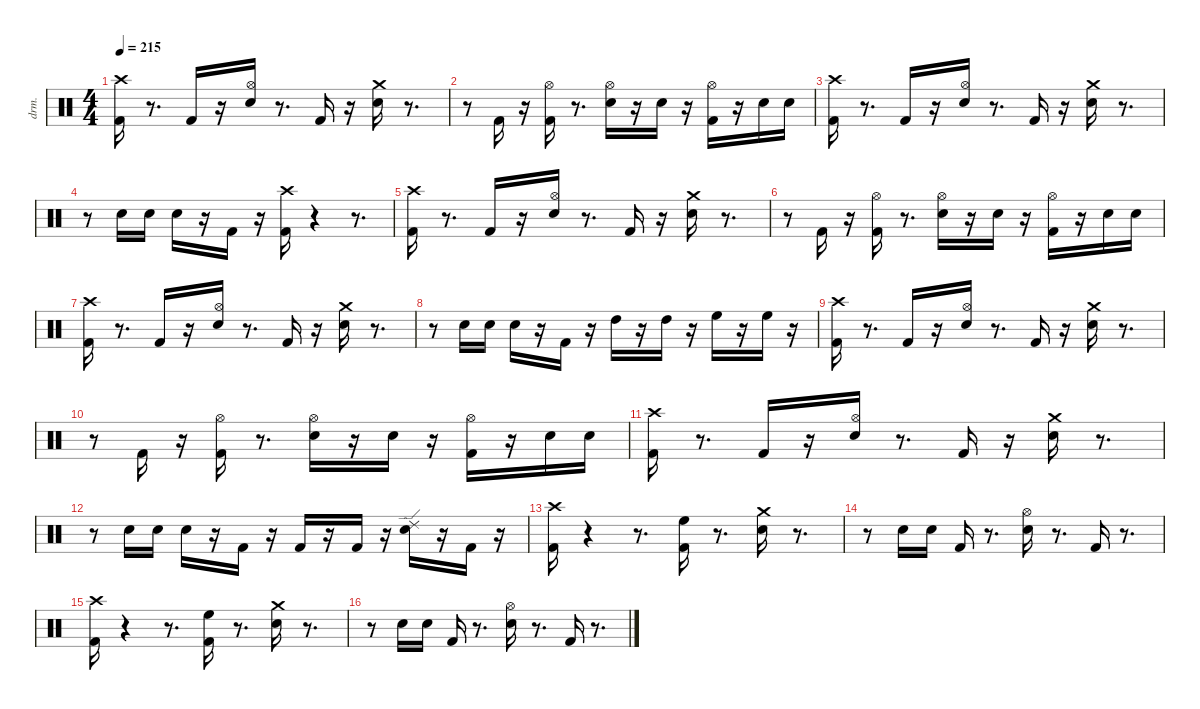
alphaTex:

\defaultSystemsLayout 4
\hideDynamics
\bracketExtendMode nobrackets
\otherSystemsTrackNameOrientation horizontal
\track ("drums(暫定)" "drm.") {instrument percussion}
\staff {score}
\articulation defaults
\ts (4 4)
\tempo 215
\clef neutral
\ks aminor
("Kick (hit) 2" "Crash high (hit)"{acc #}).16{dy fff beam Down} r.8{d beam Down} "Kick (hit) 2".16{dy f beam Up} r.16{beam Up} ("Snare (hit) 2" "Hi-Hat (open)"{acc #}).16{dy ff beam Down} r.8{d beam Down} "Kick (hit) 2".16{beam Up} r.16{beam Up} ("Snare (hit) 2" "Crash medium (hit)").16{beam Down} r.8{d beam Down} |
r.8{beam Down} "Kick (hit) 2".16{dy mf beam Up} r.16{beam Up} ("Kick (hit) 2" "Hi-Hat (open)"{acc #}).16{dy fff beam Down} r.8{d beam Down} ("Snare (hit) 2" "Hi-Hat (open)"{acc #}).16{beam Down} r.16{beam Down} "Snare (hit) 2".16{dy p beam Down} r.16{beam Down} ("Kick (hit) 2" "Hi-Hat (open)"{acc #}).16{dy ff beam Down} r.16{beam Down} "Snare (hit) 2".16{dy mp beam Down} "Snare (hit) 2".16{dy ppp beam Down} |
("Kick (hit) 2" "Crash high (hit)"{acc #}).16{dy fff beam Down} r.8{d beam Down} "Kick (hit) 2".16{dy f beam Up} r.16{beam Up} ("Snare (hit) 2" "Hi-Hat (open)"{acc #}).16{dy ff beam Down} r.8{d beam Down} "Kick (hit) 2".16{beam Up} r.16{beam Up} ("Snare (hit) 2" "Crash medium (hit)").16{beam Down} r.8{d beam Down} |
r.8{beam Down} "Snare (hit) 2".16{dy mf beam Down} "Snare (hit) 2".16{dy p beam Down} "Snare (hit) 2".16{dy ff beam Down} r.16{beam Down} "Kick (hit) 2".16{dy mf beam Up} r.16{beam Up} ("Kick (hit) 2" "Crash high (hit)"{acc #}).16{dy fff beam Down} r.4{beam Down} r.8{d beam Down} |
("Kick (hit) 2" "Crash high (hit)"{acc #}).16{beam Down} r.8{d beam Down} "Kick (hit) 2".16{dy f beam Up} r.16{beam Up} ("Snare (hit) 2" "Hi-Hat (open)"{acc #}).16{dy ff beam Down} r.8{d beam Down} "Kick (hit) 2".16{beam Up} r.16{beam Up} ("Snare (hit) 2" "Crash medium (hit)").16{beam Down} r.8{d beam Down} |
r.8{beam Down} "Kick (hit) 2".16{dy mf beam Up} r.16{beam Up} ("Kick (hit) 2" "Hi-Hat (open)"{acc #}).16{dy fff beam Down} r.8{d beam Down} ("Snare (hit) 2" "Hi-Hat (open)"{acc #}).16{beam Down} r.16{beam Down} "Snare (hit) 2".16{dy p beam Down} r.16{beam Down} ("Kick (hit) 2" "Hi-Hat (open)"{acc #}).16{dy ff beam Down} r.16{beam Down} "Snare (hit) 2".16{dy mp beam Down} "Snare (hit) 2".16{dy ppp beam Down} |
("Kick (hit) 2" "Crash high (hit)"{acc #}).16{dy fff beam Down} r.8{d beam Down} "Kick (hit) 2".16{dy f beam Up} r.16{beam Up} ("Snare (hit) 2" "Hi-Hat (open)"{acc #}).16{dy ff beam Down} r.8{d beam Down} "Kick (hit) 2".16{beam Up} r.16{beam Up} ("Snare (hit) 2" "Crash medium (hit)").16{beam Down} r.8{d beam Down} |
r.8{beam Down} "Snare (hit) 2".16{dy mf beam Down} "Snare (hit) 2".16{dy p beam Down} "Snare (hit) 2".16{dy ff beam Down} r.16{beam Down} "Kick (hit) 2".16{beam Up} r.16{beam Up} "High Tom (hit)".16{beam Down} r.16{beam Down} "High Tom (hit)".16{dy f beam Down} r.16{beam Down} "High Floor Tom (hit)".16{dy ff beam Down} r.16{beam Down} "High Floor Tom (hit)".16{dy f beam Down} r.16{beam Down} |
("Kick (hit) 2" "Crash high (hit)"{acc #}).16{dy fff beam Down} r.8{d beam Down} "Kick (hit) 2".16{dy f beam Up} r.16{beam Up} ("Snare (hit) 2" "Hi-Hat (open)"{acc #}).16{dy ff beam Down} r.8{d beam Down} "Kick (hit) 2".16{beam Up} r.16{beam Up} ("Snare (hit) 2" "Crash medium (hit)").16{beam Down} r.8{d beam Down} |
r.8{beam Down} "Kick (hit) 2".16{dy mf beam Up} r.16{beam Up} ("Kick (hit) 2" "Hi-Hat (open)"{acc #}).16{dy fff beam Down} r.8{d beam Down} ("Snare (hit) 2" "Hi-Hat (open)"{acc #}).16{beam Down} r.16{beam Down} "Snare (hit) 2".16{dy p beam Down} r.16{beam Down} ("Kick (hit) 2" "Hi-Hat (open)"{acc #}).16{dy ff beam Down} r.16{beam Down} "Snare (hit) 2".16{dy mp beam Down} "Snare (hit) 2".16{dy ppp beam Down} |
("Kick (hit) 2" "Crash high (hit)"{acc #}).16{dy fff beam Down} r.8{d beam Down} "Kick (hit) 2".16{dy f beam Up} r.16{beam Up} ("Snare (hit) 2" "Hi-Hat (open)"{acc #}).16{dy ff beam Down} r.8{d beam Down} "Kick (hit) 2".16{beam Up} r.16{beam Up} ("Snare (hit) 2" "Crash medium (hit)").16{beam Down} r.8{d beam Down} |
r.8{beam Down} "Snare (hit) 2".16{dy mf beam Down} "Snare (hit) 2".16{dy p beam Down} "Snare (hit) 2".16{dy ff beam Down} r.16{beam Down} "Kick (hit) 2".16{dy mf beam Up} r.16{beam Up} "Kick (hit) 2".16{dy fff beam Up} r.16{beam Up} "Kick (hit) 2".16{dy ff beam Up} r.16{beam Up} ("Snare (hit) 2" "Ride (edge) 2").16{beam Down} r.16{beam Down} "Kick (hit) 2".16{dy f beam Up} r.16{beam Up} |
("Kick (hit) 2" "Crash high (hit)"{acc #}).16{dy fff beam Down} r.4{beam Down} r.8{d beam Down} ("Kick (hit) 2" "High Floor Tom (hit)").16{dy ff beam Down} r.8{d beam Down} ("Snare (hit) 2" "Crash medium (hit)").16{beam Down} r.8{d beam Down} |
r.8{beam Down} "Snare (hit) 2".16{dy ppp beam Down} "Snare (hit) 2".16{beam Down} "Kick (hit) 2".16{dy ff beam Up} r.8{d beam Up} ("Snare (hit) 2" "Hi-Hat (open)"{acc #}).16{beam Down} r.8{d beam Down} "Kick (hit) 2".16{dy mf beam Up} r.8{d beam Up} |
("Kick (hit) 2" "Crash high (hit)"{acc #}).16{dy fff beam Down} r.4{beam Down} r.8{d beam Down} ("Kick (hit) 2" "High Floor Tom (hit)").16{dy ff beam Down} r.8{d beam Down} ("Snare (hit) 2" "Crash medium (hit)").16{beam Down} r.8{d beam Down} |
r.8{beam Down} "Snare (hit) 2".16{dy ppp beam Down} "Snare (hit) 2".16{beam Down} "Kick (hit) 2".16{dy ff beam Up} r.8{d beam Up} ("Snare (hit) 2" "Hi-Hat (open)"{acc #}).16{beam Down} r.8{d beam Down} "Kick (hit) 2".16{dy mf beam Up} r.8{d beam Up}
